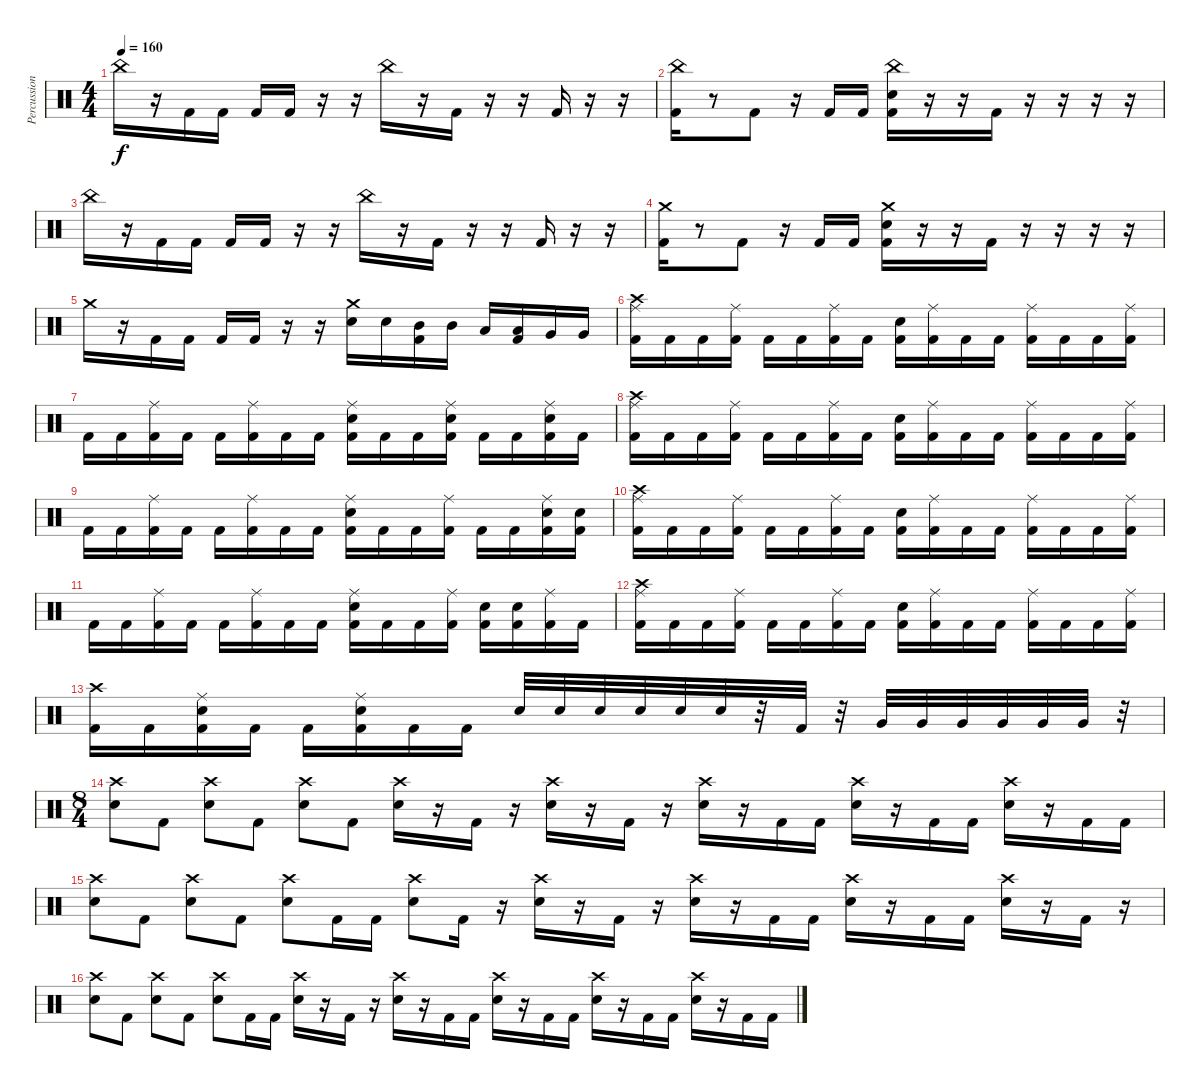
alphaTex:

\track ("Percussion" "Percussion") {instrument percussion}
\staff {score}
\articulation defaults
\ts (4 4)
\tempo 160
\clef neutral
\ks c "China (hit)".16{dy f}
r.16 "Kick (hit) 2".16 "Kick (hit) 2".16 "Kick (hit) 2".16 "Kick (hit) 2".16 r.16 r.16 "China (hit)".16 r.16 "Kick (hit) 2".16 r.16 r.16 "Kick (hit) 2".16 r.16 r.16 |
("China (hit)" "Kick (hit) 2").16 r.8 "Kick (hit) 2".8 r.16 "Kick (hit) 2".16 "Kick (hit) 2".16 ("China (hit)" "Electric Snare (hit)" "Kick (hit) 2").16 r.16 r.16 "Kick (hit) 2".16 r.16 r.16 r.16 r.16 |
"China (hit)".16 r.16 "Kick (hit) 2".16 "Kick (hit) 2".16 "Kick (hit) 2".16 "Kick (hit) 2".16 r.16 r.16 "China (hit)".16 r.16 "Kick (hit) 2".16 r.16 r.16 "Kick (hit) 2".16 r.16 r.16 |
("Crash medium (hit)" "Kick (hit) 2").16 r.8 "Kick (hit) 2".8 r.16 "Kick (hit) 2".16 "Kick (hit) 2".16 ("Crash medium (hit)" "Electric Snare (hit)" "Kick (hit) 2").16 r.16 r.16 "Kick (hit) 2".16 r.16 r.16 r.16 r.16 |
"Crash medium (hit)".16 r.16 "Kick (hit) 2".16 "Kick (hit) 2".16 "Kick (hit) 2".16 "Kick (hit) 2".16 r.16 r.16 ("Crash medium (hit)" "Electric Snare (hit)").16 "Electric Snare (hit)".16 ("Mid Tom (hit)" "Kick (hit) 2").16 "Mid Tom (hit)".16 "Low Tom (hit)".16 ("Low Tom (hit)" "Kick (hit) 2").16 "Very Low Tom (hit)".16 "Very Low Tom (hit)".16 |
("Ride (middle)" "Crash high (hit)" "Kick (hit) 2").16 "Kick (hit) 2".16 "Kick (hit) 2".16 ("Ride (middle)" "Kick (hit) 2").16 "Kick (hit) 2".16 "Kick (hit) 2".16 ("Ride (middle)" "Kick (hit) 2").16 "Kick (hit) 2".16 ("Electric Snare (hit)" "Kick (hit) 2").16 ("Ride (middle)" "Kick (hit) 2").16 "Kick (hit) 2".16 "Kick (hit) 2".16 ("Ride (middle)" "Kick (hit) 2").16 "Kick (hit) 2".16 "Kick (hit) 2".16 ("Ride (middle)" "Kick (hit) 2").16 |
"Kick (hit) 2".16 "Kick (hit) 2".16 ("Ride (middle)" "Kick (hit) 2").16 "Kick (hit) 2".16 "Kick (hit) 2".16 ("Ride (middle)" "Kick (hit) 2").16 "Kick (hit) 2".16 "Kick (hit) 2".16 ("Ride (middle)" "Electric Snare (hit)" "Kick (hit) 2").16 "Kick (hit) 2".16 "Kick (hit) 2".16 ("Ride (middle)" "Electric Snare (hit)" "Kick (hit) 2").16 "Kick (hit) 2".16 "Kick (hit) 2".16 ("Ride (middle)" "Electric Snare (hit)" "Kick (hit) 2").16 "Kick (hit) 2".16 |
("Ride (middle)" "Crash high (hit)" "Kick (hit) 2").16 "Kick (hit) 2".16 "Kick (hit) 2".16 ("Ride (middle)" "Kick (hit) 2").16 "Kick (hit) 2".16 "Kick (hit) 2".16 ("Ride (middle)" "Kick (hit) 2").16 "Kick (hit) 2".16 ("Electric Snare (hit)" "Kick (hit) 2").16 ("Ride (middle)" "Kick (hit) 2").16 "Kick (hit) 2".16 "Kick (hit) 2".16 ("Ride (middle)" "Kick (hit) 2").16 "Kick (hit) 2".16 "Kick (hit) 2".16 ("Ride (middle)" "Kick (hit) 2").16 |
"Kick (hit) 2".16 "Kick (hit) 2".16 ("Ride (middle)" "Kick (hit) 2").16 "Kick (hit) 2".16 "Kick (hit) 2".16 ("Ride (middle)" "Kick (hit) 2").16 "Kick (hit) 2".16 "Kick (hit) 2".16 ("Ride (middle)" "Electric Snare (hit)" "Kick (hit) 2").16 "Kick (hit) 2".16 "Kick (hit) 2".16 ("Ride (middle)" "Kick (hit) 2").16 "Kick (hit) 2".16 "Kick (hit) 2".16 ("Ride (middle)" "Electric Snare (hit)" "Kick (hit) 2").16 ("Electric Snare (hit)" "Kick (hit) 2").16 |
("Ride (middle)" "Crash high (hit)" "Kick (hit) 2").16 "Kick (hit) 2".16 "Kick (hit) 2".16 ("Ride (middle)" "Kick (hit) 2").16 "Kick (hit) 2".16 "Kick (hit) 2".16 ("Ride (middle)" "Kick (hit) 2").16 "Kick (hit) 2".16 ("Electric Snare (hit)" "Kick (hit) 2").16 ("Ride (middle)" "Kick (hit) 2").16 "Kick (hit) 2".16 "Kick (hit) 2".16 ("Ride (middle)" "Kick (hit) 2").16 "Kick (hit) 2".16 "Kick (hit) 2".16 ("Ride (middle)" "Kick (hit) 2").16 |
"Kick (hit) 2".16 "Kick (hit) 2".16 ("Ride (middle)" "Kick (hit) 2").16 "Kick (hit) 2".16 "Kick (hit) 2".16 ("Ride (middle)" "Kick (hit) 2").16 "Kick (hit) 2".16 "Kick (hit) 2".16 ("Ride (middle)" "Electric Snare (hit)" "Kick (hit) 2").16 "Kick (hit) 2".16 "Kick (hit) 2".16 ("Ride (middle)" "Kick (hit) 2").16 ("Electric Snare (hit)" "Kick (hit) 2").16 ("Electric Snare (hit)" "Kick (hit) 2").16 ("Ride (middle)" "Kick (hit) 2").16 "Kick (hit) 2".16 |
("Ride (middle)" "Crash high (hit)" "Kick (hit) 2").16 "Kick (hit) 2".16 "Kick (hit) 2".16 ("Ride (middle)" "Kick (hit) 2").16 "Kick (hit) 2".16 "Kick (hit) 2".16 ("Ride (middle)" "Kick (hit) 2").16 "Kick (hit) 2".16 ("Electric Snare (hit)" "Kick (hit) 2").16 ("Ride (middle)" "Kick (hit) 2").16 "Kick (hit) 2".16 "Kick (hit) 2".16 ("Ride (middle)" "Kick (hit) 2").16 "Kick (hit) 2".16 "Kick (hit) 2".16 ("Ride (middle)" "Kick (hit) 2").16 |
("Crash high (hit)" "Kick (hit) 2").16 "Kick (hit) 2".16 ("Ride (middle)" "Electric Snare (hit)" "Kick (hit) 2").16 "Kick (hit) 2".16 "Kick (hit) 2".16 ("Ride (middle)" "Electric Snare (hit)" "Kick (hit) 2").16 "Kick (hit) 2".16 "Kick (hit) 2".16 "Electric Snare (hit)".32 "Electric Snare (hit)".32 "Electric Snare (hit)".32 "Electric Snare (hit)".32 "Electric Snare (hit)".32 "Electric Snare (hit)".32 r.32 "Kick (hit) 2".32 r.32 "Very Low Tom (hit)".32 "Very Low Tom (hit)".32 "Very Low Tom (hit)".32 "Very Low Tom (hit)".32 "Very Low Tom (hit)".32 "Very Low Tom (hit)".32 r.32 |
\ts (8 4)
("Crash high (hit)" "Electric Snare (hit)").8 "Kick (hit) 2".8 ("Crash high (hit)" "Electric Snare (hit)").8 "Kick (hit) 2".8 ("Crash high (hit)" "Electric Snare (hit)").8 "Kick (hit) 2".8 ("Crash high (hit)" "Electric Snare (hit)").16 r.16 "Kick (hit) 2".16 r.16 ("Crash high (hit)" "Electric Snare (hit)").16 r.16 "Kick (hit) 2".16 r.16 ("Crash high (hit)" "Electric Snare (hit)").16 r.16 "Kick (hit) 2".16 "Kick (hit) 2".16 ("Crash high (hit)" "Electric Snare (hit)").16 r.16 "Kick (hit) 2".16 "Kick (hit) 2".16 ("Crash high (hit)" "Electric Snare (hit)").16 r.16 "Kick (hit) 2".16 "Kick (hit) 2".16 |
("Crash high (hit)" "Electric Snare (hit)").8 "Kick (hit) 2".8 ("Crash high (hit)" "Electric Snare (hit)").8 "Kick (hit) 2".8 ("Crash high (hit)" "Electric Snare (hit)").8 "Kick (hit) 2".16 "Kick (hit) 2".16 ("Crash high (hit)" "Electric Snare (hit)").8 "Kick (hit) 2".16 r.16 ("Crash high (hit)" "Electric Snare (hit)").16 r.16 "Kick (hit) 2".16 r.16 ("Crash high (hit)" "Electric Snare (hit)").16 r.16 "Kick (hit) 2".16 "Kick (hit) 2".16 ("Crash high (hit)" "Electric Snare (hit)").16 r.16 "Kick (hit) 2".16 "Kick (hit) 2".16 ("Crash high (hit)" "Electric Snare (hit)").16 r.16 "Kick (hit) 2".16 r.16 |
("Crash high (hit)" "Electric Snare (hit)").8 "Kick (hit) 2".8 ("Crash high (hit)" "Electric Snare (hit)").8 "Kick (hit) 2".8 ("Crash high (hit)" "Electric Snare (hit)").8 "Kick (hit) 2".16 "Kick (hit) 2".16 ("Crash high (hit)" "Electric Snare (hit)").16 r.16 "Kick (hit) 2".16 r.16 ("Crash high (hit)" "Electric Snare (hit)").16 r.16 "Kick (hit) 2".16 "Kick (hit) 2".16 ("Crash high (hit)" "Electric Snare (hit)").16 r.16 "Kick (hit) 2".16 "Kick (hit) 2".16 ("Crash high (hit)" "Electric Snare (hit)").16 r.16 "Kick (hit) 2".16 "Kick (hit) 2".16 ("Crash high (hit)" "Electric Snare (hit)").16 r.16 "Kick (hit) 2".16 "Kick (hit) 2".16
